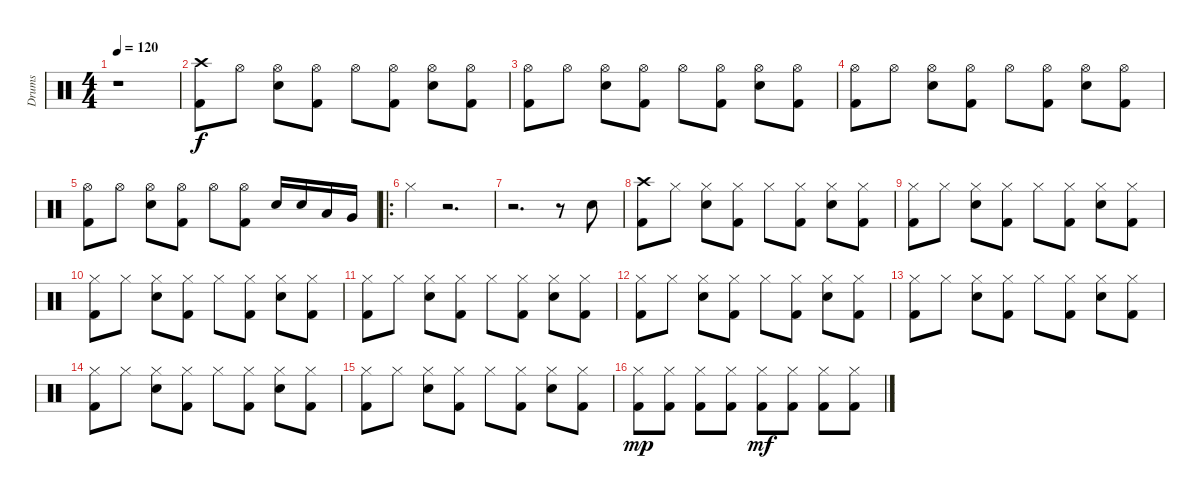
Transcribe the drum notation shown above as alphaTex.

\track ("Drums" "Drums") {instrument percussion}
\staff {score}
\articulation defaults
\ts (4 4)
\tempo 120
\clef neutral
\ks c
r.1{dy f} |
("Crash high (hit)" "Kick (hit) 2").8 "Hi-Hat (open)".8 ("Hi-Hat (open)" "Electric Snare (hit)").8 ("Hi-Hat (open)" "Kick (hit) 2").8 "Hi-Hat (open)".8 ("Hi-Hat (open)" "Kick (hit) 2").8 ("Hi-Hat (open)" "Electric Snare (hit)").8 ("Hi-Hat (open)" "Kick (hit) 2").8 |
("Hi-Hat (open)" "Kick (hit) 2").8 "Hi-Hat (open)".8 ("Hi-Hat (open)" "Electric Snare (hit)").8 ("Hi-Hat (open)" "Kick (hit) 2").8 "Hi-Hat (open)".8 ("Hi-Hat (open)" "Kick (hit) 2").8 ("Hi-Hat (open)" "Electric Snare (hit)").8 ("Hi-Hat (open)" "Kick (hit) 2").8 |
("Hi-Hat (open)" "Kick (hit) 2").8 "Hi-Hat (open)".8 ("Hi-Hat (open)" "Electric Snare (hit)").8 ("Hi-Hat (open)" "Kick (hit) 2").8 "Hi-Hat (open)".8 ("Hi-Hat (open)" "Kick (hit) 2").8 ("Hi-Hat (open)" "Electric Snare (hit)").8 ("Hi-Hat (open)" "Kick (hit) 2").8 |
("Hi-Hat (open)" "Kick (hit) 2").8 "Hi-Hat (open)".8 ("Hi-Hat (open)" "Electric Snare (hit)").8 ("Hi-Hat (open)" "Kick (hit) 2").8 "Hi-Hat (open)".8 ("Hi-Hat (open)" "Kick (hit) 2").8 "Electric Snare (hit)".16 "Electric Snare (hit)".16 "Low Tom (hit)".16 "Very Low Tom (hit)".16 |
\ro "Hi-Hat (closed)".4
r.2{d} |
r.2{d} r.8 "Electric Snare (hit)".8 |
("Crash high (hit)" "Kick (hit) 2").8 "Hi-Hat (closed)".8 ("Hi-Hat (closed)" "Electric Snare (hit)").8 ("Hi-Hat (closed)" "Kick (hit) 2").8 "Hi-Hat (closed)".8 ("Hi-Hat (closed)" "Kick (hit) 2").8 ("Hi-Hat (closed)" "Electric Snare (hit)").8 ("Hi-Hat (closed)" "Kick (hit) 2").8 |
("Hi-Hat (closed)" "Kick (hit) 2").8 "Hi-Hat (closed)".8 ("Hi-Hat (closed)" "Electric Snare (hit)").8 ("Hi-Hat (closed)" "Kick (hit) 2").8 "Hi-Hat (closed)".8 ("Hi-Hat (closed)" "Kick (hit) 2").8 ("Hi-Hat (closed)" "Electric Snare (hit)").8 ("Hi-Hat (closed)" "Kick (hit) 2").8 |
("Hi-Hat (closed)" "Kick (hit) 2").8 "Hi-Hat (closed)".8 ("Hi-Hat (closed)" "Electric Snare (hit)").8 ("Hi-Hat (closed)" "Kick (hit) 2").8 "Hi-Hat (closed)".8 ("Hi-Hat (closed)" "Kick (hit) 2").8 ("Hi-Hat (closed)" "Electric Snare (hit)").8 ("Hi-Hat (closed)" "Kick (hit) 2").8 |
("Hi-Hat (closed)" "Kick (hit) 2").8 "Hi-Hat (closed)".8 ("Hi-Hat (closed)" "Electric Snare (hit)").8 ("Hi-Hat (closed)" "Kick (hit) 2").8 "Hi-Hat (closed)".8 ("Hi-Hat (closed)" "Kick (hit) 2").8 ("Hi-Hat (closed)" "Electric Snare (hit)").8 ("Hi-Hat (closed)" "Kick (hit) 2").8 |
("Hi-Hat (closed)" "Kick (hit) 2").8 "Hi-Hat (closed)".8 ("Hi-Hat (closed)" "Electric Snare (hit)").8 ("Hi-Hat (closed)" "Kick (hit) 2").8 "Hi-Hat (closed)".8 ("Hi-Hat (closed)" "Kick (hit) 2").8 ("Hi-Hat (closed)" "Electric Snare (hit)").8 ("Hi-Hat (closed)" "Kick (hit) 2").8 |
("Hi-Hat (closed)" "Kick (hit) 2").8 "Hi-Hat (closed)".8 ("Hi-Hat (closed)" "Electric Snare (hit)").8 ("Hi-Hat (closed)" "Kick (hit) 2").8 "Hi-Hat (closed)".8 ("Hi-Hat (closed)" "Kick (hit) 2").8 ("Hi-Hat (closed)" "Electric Snare (hit)").8 ("Hi-Hat (closed)" "Kick (hit) 2").8 |
("Hi-Hat (closed)" "Kick (hit) 2").8 "Hi-Hat (closed)".8 ("Hi-Hat (closed)" "Electric Snare (hit)").8 ("Hi-Hat (closed)" "Kick (hit) 2").8 "Hi-Hat (closed)".8 ("Hi-Hat (closed)" "Kick (hit) 2").8 ("Hi-Hat (closed)" "Electric Snare (hit)").8 ("Hi-Hat (closed)" "Kick (hit) 2").8 |
("Hi-Hat (closed)" "Kick (hit) 2").8 "Hi-Hat (closed)".8 ("Hi-Hat (closed)" "Electric Snare (hit)").8 ("Hi-Hat (closed)" "Kick (hit) 2").8 "Hi-Hat (closed)".8 ("Hi-Hat (closed)" "Kick (hit) 2").8 ("Hi-Hat (closed)" "Electric Snare (hit)").8 ("Hi-Hat (closed)" "Kick (hit) 2").8 |
("Hi-Hat (closed)" "Kick (hit) 2").8{dy mp} ("Hi-Hat (closed)" "Kick (hit) 2").8 ("Hi-Hat (closed)" "Kick (hit) 2").8 ("Hi-Hat (closed)" "Kick (hit) 2").8 ("Hi-Hat (closed)" "Kick (hit) 2").8{dy mf} ("Hi-Hat (closed)" "Kick (hit) 2").8 ("Hi-Hat (closed)" "Kick (hit) 2").8 ("Hi-Hat (closed)" "Kick (hit) 2").8
